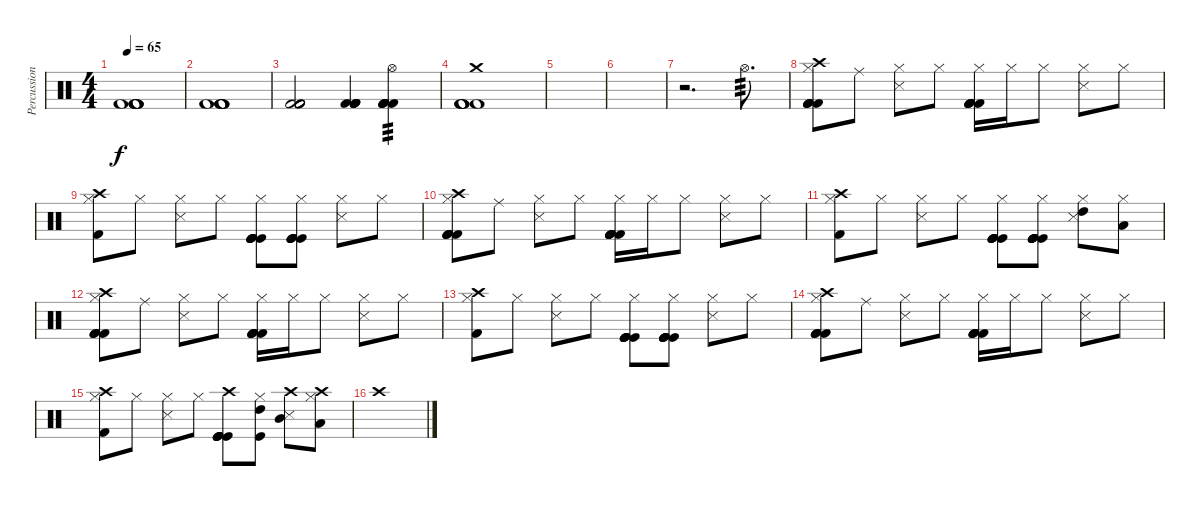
\track ("Percussion" "Percussion") {instrument percussion}
\staff {score}
\articulation defaults
\ts (4 4)
\tempo 65
\clef neutral
\ks c
("Kick (hit) 2" "Kick (hit) 2" "Kick (hit) 2" "Kick (hit) 2" "Kick (hit) 2").1{dy f} |
("Kick (hit) 2" "Kick (hit) 2" "Kick (hit) 2" "Kick (hit) 2" "Kick (hit) 2").1 |
("Kick (hit) 2" "Kick (hit) 2" "Kick (hit) 2" "Kick (hit) 2" "Kick (hit) 2").2 ("Kick (hit) 2" "Kick (hit) 2" "Kick (hit) 2" "Kick (hit) 2" "Kick (hit) 2").4 ("Kick (hit) 2" "Kick (hit) 2" "Kick (hit) 2" "Kick (hit) 2" "Kick (hit) 2" "Hi-Hat (open)").4{tp 3} |
("Kick (hit) 2" "Crash medium (hit)" "Kick (hit) 2" "Kick (hit) 2" "Kick (hit) 2").1 |
|
|
r.2{d} "Hi-Hat (open)".8{d tp 3} |
("Kick (hit) 2" "Hi-Hat (closed)" "Crash high (hit)" "Kick (hit) 2" "Kick (hit) 2" "Kick (hit) 2").8 "Ride (middle)".8 ("Hi-Hat (closed)" "Snare (side stick) 3").8 "Hi-Hat (closed)".8 ("Hi-Hat (closed)" "Kick (hit) 2" "Kick (hit) 2" "Kick (hit) 2" "Kick (hit) 2" "Kick (hit) 2").16 "Hi-Hat (closed)".16 "Hi-Hat (closed)".8 ("Hi-Hat (closed)" "Snare (side stick) 3").8 "Hi-Hat (closed)".8 |
("Hi-Hat (closed)" "Kick (hit) 2" "Crash high (hit)").8 "Hi-Hat (closed)".8 ("Hi-Hat (closed)" "Snare (side stick) 3").8 "Hi-Hat (closed)".8 ("Hi-Hat (closed)" "Kick (hit)" "Kick (hit)" "Kick (hit)" "Kick (hit)" "Kick (hit)").8 ("Hi-Hat (closed)" "Kick (hit)" "Kick (hit)" "Kick (hit)" "Kick (hit)" "Kick (hit)").8 ("Hi-Hat (closed)" "Snare (side stick) 3").8 "Hi-Hat (closed)".8 |
("Kick (hit) 2" "Hi-Hat (closed)" "Crash high (hit)" "Kick (hit) 2" "Kick (hit) 2" "Kick (hit) 2").8 "Ride (middle)".8 ("Hi-Hat (closed)" "Snare (side stick) 3").8 "Hi-Hat (closed)".8 ("Hi-Hat (closed)" "Kick (hit) 2" "Kick (hit) 2" "Kick (hit) 2" "Kick (hit) 2" "Kick (hit) 2").16 "Hi-Hat (closed)".16 "Hi-Hat (closed)".8 ("Hi-Hat (closed)" "Snare (side stick) 3").8 "Hi-Hat (closed)".8 |
("Hi-Hat (closed)" "Kick (hit) 2" "Crash high (hit)").8 "Hi-Hat (closed)".8 ("Hi-Hat (closed)" "Snare (side stick) 3").8 "Hi-Hat (closed)".8 ("Hi-Hat (closed)" "Kick (hit)" "Kick (hit)" "Kick (hit)" "Kick (hit)" "Kick (hit)").8 ("Hi-Hat (closed)" "Kick (hit)" "Kick (hit)" "Kick (hit)" "Kick (hit)" "Kick (hit)").8 ("Hi-Hat (closed)" "High Tom (hit)" "Snare (side stick) 3").8 ("Hi-Hat (closed)" "Low Tom (hit)").8 |
("Kick (hit) 2" "Hi-Hat (closed)" "Crash high (hit)" "Kick (hit) 2" "Kick (hit) 2" "Kick (hit) 2").8 "Ride (middle)".8 ("Hi-Hat (closed)" "Snare (side stick) 3").8 "Hi-Hat (closed)".8 ("Hi-Hat (closed)" "Kick (hit) 2" "Kick (hit) 2" "Kick (hit) 2" "Kick (hit) 2" "Kick (hit) 2").16 "Hi-Hat (closed)".16 "Hi-Hat (closed)".8 ("Hi-Hat (closed)" "Snare (side stick) 3").8 "Hi-Hat (closed)".8 |
("Hi-Hat (closed)" "Kick (hit) 2" "Crash high (hit)").8 "Hi-Hat (closed)".8 ("Hi-Hat (closed)" "Snare (side stick) 3").8 "Hi-Hat (closed)".8 ("Hi-Hat (closed)" "Kick (hit)" "Kick (hit)" "Kick (hit)" "Kick (hit)" "Kick (hit)").8 ("Hi-Hat (closed)" "Kick (hit)" "Kick (hit)" "Kick (hit)" "Kick (hit)" "Kick (hit)").8 ("Hi-Hat (closed)" "Snare (side stick) 3").8 "Hi-Hat (closed)".8 |
("Kick (hit) 2" "Hi-Hat (closed)" "Crash high (hit)" "Kick (hit) 2" "Kick (hit) 2" "Kick (hit) 2").8 "Ride (middle)".8 ("Hi-Hat (closed)" "Snare (side stick) 3").8 "Hi-Hat (closed)".8 ("Hi-Hat (closed)" "Kick (hit) 2" "Kick (hit) 2" "Kick (hit) 2" "Kick (hit) 2" "Kick (hit) 2").16 "Hi-Hat (closed)".16 "Hi-Hat (closed)".8 ("Hi-Hat (closed)" "Snare (side stick) 3").8 "Hi-Hat (closed)".8 |
("Hi-Hat (closed)" "Kick (hit) 2" "Crash high (hit)").8 "Hi-Hat (closed)".8 ("Hi-Hat (closed)" "Snare (side stick) 3").8 "Hi-Hat (closed)".8 ("Crash high (hit)" "Kick (hit)" "Kick (hit)" "Kick (hit)" "Kick (hit)" "Kick (hit)").8 ("Hi-Hat (closed)" "High Tom (hit)" "Kick (hit)").8 ("Crash high (hit)" "Mid Tom (hit)" "Snare (side stick) 3").8 ("Hi-Hat (closed)" "Crash high (hit)" "Low Tom (hit)").8 |
"Crash high (hit)".1
